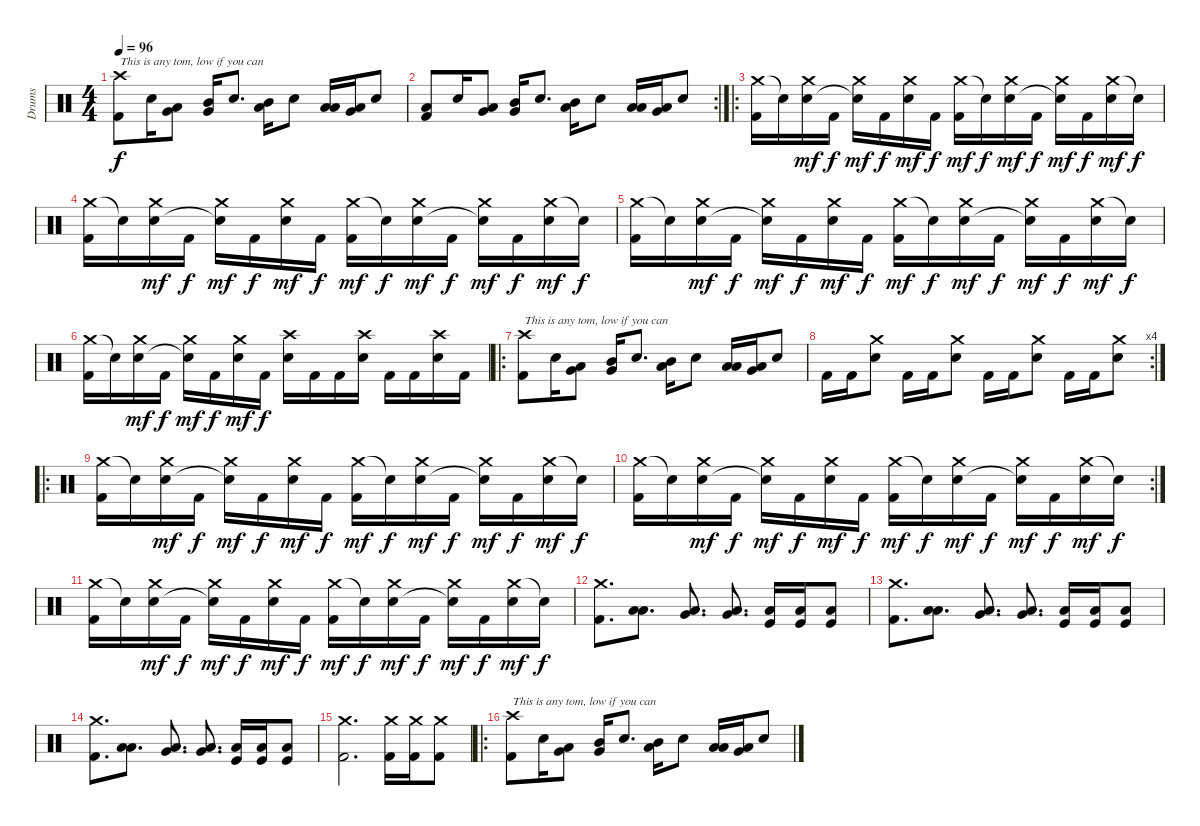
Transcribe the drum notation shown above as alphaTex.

\track ("Drums" "Drums") {instrument percussion}
\staff {score}
\articulation defaults
\ts (4 4)
\tempo 96
\clef neutral
\ks c
("Crash high (hit)" "Kick (hit) 2").8{txt "This is any tom, low if you can" dy f} "Electric Snare (hit)".16 ("Low Tom (hit)" "Very Low Tom (hit)").8 ("Very Low Tom (hit)" "Mid Tom (hit)").16 "Electric Snare (hit)".8{d} ("Low Tom (hit)" "Mid Tom (hit)").16 "Electric Snare (hit)".8 ("Low Tom (hit)" "Low Tom (hit)").16 ("Very Low Tom (hit)" "Low Tom (hit)").16 "Electric Snare (hit)".8 |
\rc 2
("Low Tom (hit)" "Kick (hit) 2").8 "Electric Snare (hit)".16 ("Low Tom (hit)" "Very Low Tom (hit)").8 ("Very Low Tom (hit)" "Mid Tom (hit)").16 "Electric Snare (hit)".8{d} ("Low Tom (hit)" "Mid Tom (hit)").16 "Electric Snare (hit)".8 ("Low Tom (hit)" "Low Tom (hit)").16 ("Low Tom (hit)" "Very Low Tom (hit)").16 "Electric Snare (hit)".8 |
\ro
("Crash medium (hit)" "Kick (hit) 2").16 "Snare (hit)"{t}.16 ("Crash medium (hit)" "Electric Snare (hit)").16{dy mf} "Kick (hit) 2".16{dy f} ("Crash medium (hit)" "Snare (hit)"{t}).16{dy mf} "Kick (hit) 2".16{dy f} ("Crash medium (hit)" "Electric Snare (hit)").16{dy mf} "Kick (hit) 2".16{dy f} ("Crash medium (hit)" "Kick (hit) 2").16{dy mf} "Snare (hit)"{t}.16{dy f} ("Crash medium (hit)" "Electric Snare (hit)").16{dy mf} "Kick (hit) 2".16{dy f} ("Crash medium (hit)" "Snare (hit)"{t}).16{dy mf} "Kick (hit) 2".16{dy f} ("Crash medium (hit)" "Electric Snare (hit)").16{dy mf} "Snare (hit)"{t}.16{dy f} |
("Crash medium (hit)" "Kick (hit) 2").16 "Snare (hit)"{t}.16 ("Crash medium (hit)" "Electric Snare (hit)").16{dy mf} "Kick (hit) 2".16{dy f} ("Crash medium (hit)" "Snare (hit)"{t}).16{dy mf} "Kick (hit) 2".16{dy f} ("Crash medium (hit)" "Electric Snare (hit)").16{dy mf} "Kick (hit) 2".16{dy f} ("Crash medium (hit)" "Kick (hit) 2").16{dy mf} "Snare (hit)"{t}.16{dy f} ("Crash medium (hit)" "Electric Snare (hit)").16{dy mf} "Kick (hit) 2".16{dy f} ("Crash medium (hit)" "Snare (hit)"{t}).16{dy mf} "Kick (hit) 2".16{dy f} ("Crash medium (hit)" "Electric Snare (hit)").16{dy mf} "Snare (hit)"{t}.16{dy f} |
("Crash medium (hit)" "Kick (hit) 2").16 "Snare (hit)"{t}.16 ("Crash medium (hit)" "Electric Snare (hit)").16{dy mf} "Kick (hit) 2".16{dy f} ("Crash medium (hit)" "Snare (hit)"{t}).16{dy mf} "Kick (hit) 2".16{dy f} ("Crash medium (hit)" "Electric Snare (hit)").16{dy mf} "Kick (hit) 2".16{dy f} ("Crash medium (hit)" "Kick (hit) 2").16{dy mf} "Snare (hit)"{t}.16{dy f} ("Crash medium (hit)" "Electric Snare (hit)").16{dy mf} "Kick (hit) 2".16{dy f} ("Crash medium (hit)" "Snare (hit)"{t}).16{dy mf} "Kick (hit) 2".16{dy f} ("Crash medium (hit)" "Electric Snare (hit)").16{dy mf} "Snare (hit)"{t}.16{dy f} |
("Crash medium (hit)" "Kick (hit) 2").16 "Snare (hit)"{t}.16 ("Crash medium (hit)" "Electric Snare (hit)").16{dy mf} "Kick (hit) 2".16{dy f} ("Crash medium (hit)" "Snare (hit)"{t}).16{dy mf} "Kick (hit) 2".16{dy f} ("Crash medium (hit)" "Electric Snare (hit)").16{dy mf} "Kick (hit) 2".16{dy f} ("Crash high (hit)" "Snare (hit) 2").16 "Kick (hit) 2".16 "Kick (hit) 2".16 ("Crash high (hit)" "Snare (hit) 2").16 "Kick (hit) 2".16 "Kick (hit) 2".16 ("Crash high (hit)" "Snare (hit) 2").16 "Kick (hit) 2".16 |
\ro
("Crash high (hit)" "Kick (hit) 2").8{txt "This is any tom, low if you can"} "Electric Snare (hit)".16 ("Low Tom (hit)" "Very Low Tom (hit)").8 ("Very Low Tom (hit)" "Mid Tom (hit)").16 "Electric Snare (hit)".8{d} ("Low Tom (hit)" "Mid Tom (hit)").16 "Electric Snare (hit)".8 ("Low Tom (hit)" "Low Tom (hit)").16 ("Very Low Tom (hit)" "Low Tom (hit)").16 "Electric Snare (hit)".8 |
\rc 4 "Kick (hit) 2".16 "Kick (hit) 2".16
("Crash medium (hit)" "Electric Snare (hit)").8 "Kick (hit) 2".16 "Kick (hit) 2".16 ("Crash medium (hit)" "Electric Snare (hit)").8 "Kick (hit) 2".16 "Kick (hit) 2".16 ("Crash medium (hit)" "Electric Snare (hit)").8 "Kick (hit) 2".16 "Kick (hit) 2".16 ("Crash medium (hit)" "Electric Snare (hit)").8 |
\ro
("Crash medium (hit)" "Kick (hit) 2").16 "Snare (hit)"{t}.16 ("Crash medium (hit)" "Electric Snare (hit)").16{dy mf} "Kick (hit) 2".16{dy f} ("Crash medium (hit)" "Snare (hit)"{t}).16{dy mf} "Kick (hit) 2".16{dy f} ("Crash medium (hit)" "Electric Snare (hit)").16{dy mf} "Kick (hit) 2".16{dy f} ("Crash medium (hit)" "Kick (hit) 2").16{dy mf} "Snare (hit)"{t}.16{dy f} ("Crash medium (hit)" "Electric Snare (hit)").16{dy mf} "Kick (hit) 2".16{dy f} ("Crash medium (hit)" "Snare (hit)"{t}).16{dy mf} "Kick (hit) 2".16{dy f} ("Crash medium (hit)" "Electric Snare (hit)").16{dy mf} "Snare (hit)"{t}.16{dy f} |
\rc 2
("Crash medium (hit)" "Kick (hit) 2").16 "Snare (hit)"{t}.16 ("Crash medium (hit)" "Electric Snare (hit)").16{dy mf} "Kick (hit) 2".16{dy f} ("Crash medium (hit)" "Snare (hit)"{t}).16{dy mf} "Kick (hit) 2".16{dy f} ("Crash medium (hit)" "Electric Snare (hit)").16{dy mf} "Kick (hit) 2".16{dy f} ("Crash medium (hit)" "Kick (hit) 2").16{dy mf} "Snare (hit)"{t}.16{dy f} ("Crash medium (hit)" "Electric Snare (hit)").16{dy mf} "Kick (hit) 2".16{dy f} ("Crash medium (hit)" "Snare (hit)"{t}).16{dy mf} "Kick (hit) 2".16{dy f} ("Crash medium (hit)" "Electric Snare (hit)").16{dy mf} "Snare (hit)"{t}.16{dy f} |
("Crash medium (hit)" "Kick (hit) 2").16 "Snare (hit)"{t}.16 ("Crash medium (hit)" "Electric Snare (hit)").16{dy mf} "Kick (hit) 2".16{dy f} ("Crash medium (hit)" "Snare (hit)"{t}).16{dy mf} "Kick (hit) 2".16{dy f} ("Crash medium (hit)" "Electric Snare (hit)").16{dy mf} "Kick (hit) 2".16{dy f} ("Crash medium (hit)" "Kick (hit) 2").16{dy mf} "Snare (hit)"{t}.16{dy f} ("Crash medium (hit)" "Electric Snare (hit)").16{dy mf} "Kick (hit) 2".16{dy f} ("Crash medium (hit)" "Snare (hit)"{t}).16{dy mf} "Kick (hit) 2".16{dy f} ("Crash medium (hit)" "Electric Snare (hit)").16{dy mf} "Snare (hit)"{t}.16{dy f} |
("Crash medium (hit)" "Kick (hit) 2").8{d} ("Low Tom (hit)" "Low Tom (hit)").8{d} ("Very Low Tom (hit)" "Low Tom (hit)").8{d} ("Very Low Tom (hit)" "Low Floor Tom (hit)").8{d} ("Low Tom (hit)" "Kick (hit)").16 ("Low Tom (hit)" "Kick (hit)").16 ("Low Tom (hit)" "Kick (hit)").8 |
("Crash medium (hit)" "Kick (hit) 2").8{d} ("Low Tom (hit)" "Low Tom (hit)").8{d} ("Very Low Tom (hit)" "Low Tom (hit)").8{d} ("Very Low Tom (hit)" "Low Floor Tom (hit)").8{d} ("Low Tom (hit)" "Kick (hit)").16 ("Low Tom (hit)" "Kick (hit)").16 ("Low Tom (hit)" "Kick (hit)").8 |
("Crash medium (hit)" "Kick (hit) 2").8{d} ("Low Tom (hit)" "Low Tom (hit)").8{d} ("Very Low Tom (hit)" "Low Tom (hit)").8{d} ("Very Low Tom (hit)" "Low Floor Tom (hit)").8{d} ("Low Tom (hit)" "Kick (hit)").16 ("Low Tom (hit)" "Kick (hit)").16 ("Low Tom (hit)" "Kick (hit)").8 |
("Crash medium (hit)" "Kick (hit) 2").2{d} ("Crash medium (hit)" "Kick (hit) 2").16 ("Crash medium (hit)" "Kick (hit) 2").16 ("Crash medium (hit)" "Kick (hit) 2").8 |
\ro
("Crash high (hit)" "Kick (hit) 2").8{txt "This is any tom, low if you can"} "Electric Snare (hit)".16 ("Low Tom (hit)" "Very Low Tom (hit)").8 ("Very Low Tom (hit)" "Mid Tom (hit)").16 "Electric Snare (hit)".8{d} ("Low Tom (hit)" "Mid Tom (hit)").16 "Electric Snare (hit)".8 ("Low Tom (hit)" "Low Tom (hit)").16 ("Very Low Tom (hit)" "Low Tom (hit)").16 "Electric Snare (hit)".8
